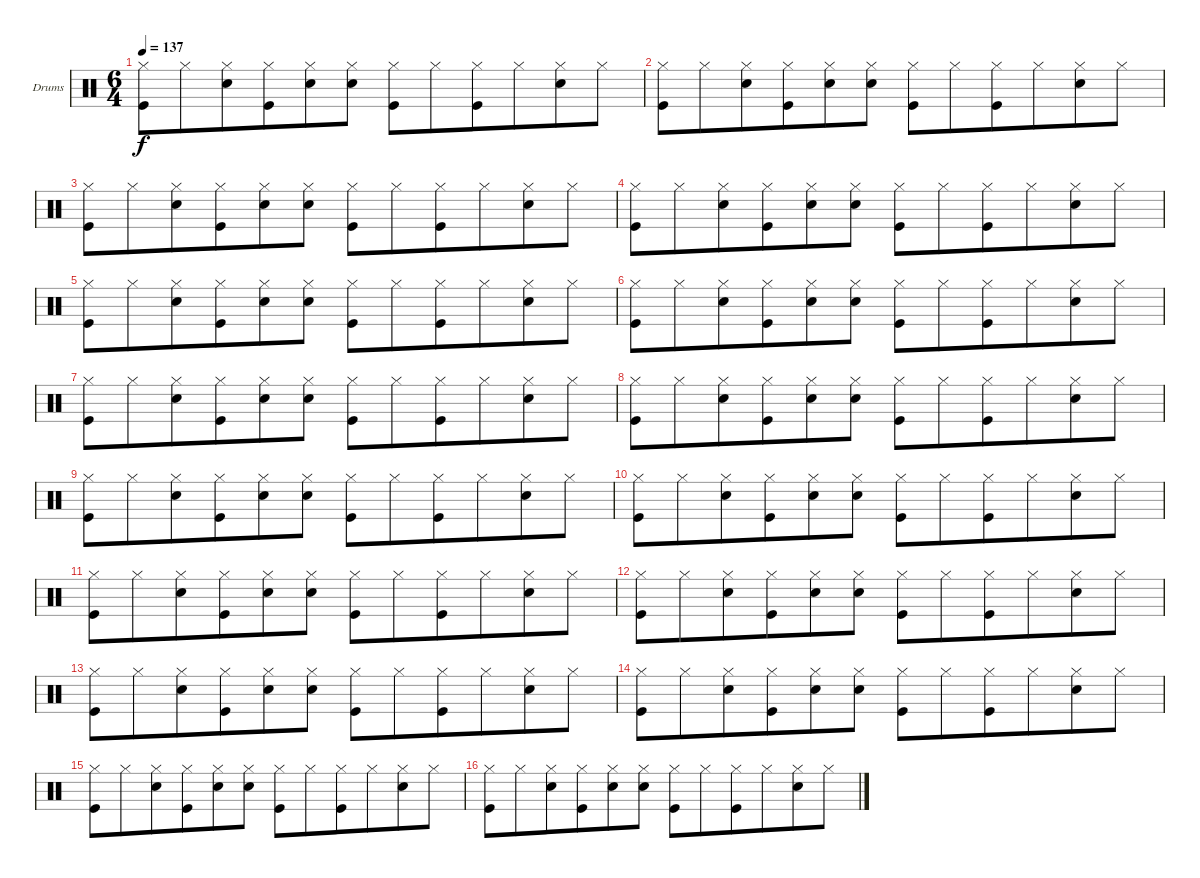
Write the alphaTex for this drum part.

\bracketExtendMode groupsimilarinstruments
\firstSystemTrackNameOrientation horizontal
\otherSystemsTrackNameOrientation horizontal
\track ("Peter Ulrich (Drums)" "Drums") {instrument percussion}
\staff {score}
\articulation defaults
\ts (6 4)
\beaming (8 6 6)
\tempo 137
\clef neutral
\ks c
("Hi-Hat (closed)" "Kick (hit)").8{dy f} "Hi-Hat (closed)".8 ("Hi-Hat (closed)" "Snare (hit) 2").8 ("Hi-Hat (closed)" "Kick (hit)").8 ("Hi-Hat (closed)" "Snare (hit) 2").8 ("Hi-Hat (closed)" "Snare (hit) 2").8 ("Hi-Hat (closed)" "Kick (hit)").8 "Hi-Hat (closed)".8 ("Hi-Hat (closed)" "Kick (hit)").8 "Hi-Hat (closed)".8 ("Hi-Hat (closed)" "Snare (hit) 2").8 "Hi-Hat (closed)".8 |
("Hi-Hat (closed)" "Kick (hit)").8 "Hi-Hat (closed)".8 ("Hi-Hat (closed)" "Snare (hit) 2").8 ("Hi-Hat (closed)" "Kick (hit)").8 ("Hi-Hat (closed)" "Snare (hit) 2").8 ("Hi-Hat (closed)" "Snare (hit) 2").8 ("Hi-Hat (closed)" "Kick (hit)").8 "Hi-Hat (closed)".8 ("Hi-Hat (closed)" "Kick (hit)").8 "Hi-Hat (closed)".8 ("Hi-Hat (closed)" "Snare (hit) 2").8 "Hi-Hat (closed)".8 |
("Hi-Hat (closed)" "Kick (hit)").8 "Hi-Hat (closed)".8 ("Hi-Hat (closed)" "Snare (hit) 2").8 ("Hi-Hat (closed)" "Kick (hit)").8 ("Hi-Hat (closed)" "Snare (hit) 2").8 ("Hi-Hat (closed)" "Snare (hit) 2").8 ("Hi-Hat (closed)" "Kick (hit)").8 "Hi-Hat (closed)".8 ("Hi-Hat (closed)" "Kick (hit)").8 "Hi-Hat (closed)".8 ("Hi-Hat (closed)" "Snare (hit) 2").8 "Hi-Hat (closed)".8 |
("Hi-Hat (closed)" "Kick (hit)").8 "Hi-Hat (closed)".8 ("Hi-Hat (closed)" "Snare (hit) 2").8 ("Hi-Hat (closed)" "Kick (hit)").8 ("Hi-Hat (closed)" "Snare (hit) 2").8 ("Hi-Hat (closed)" "Snare (hit) 2").8 ("Hi-Hat (closed)" "Kick (hit)").8 "Hi-Hat (closed)".8 ("Hi-Hat (closed)" "Kick (hit)").8 "Hi-Hat (closed)".8 ("Hi-Hat (closed)" "Snare (hit) 2").8 "Hi-Hat (closed)".8 |
("Hi-Hat (closed)" "Kick (hit)").8 "Hi-Hat (closed)".8 ("Hi-Hat (closed)" "Snare (hit) 2").8 ("Hi-Hat (closed)" "Kick (hit)").8 ("Hi-Hat (closed)" "Snare (hit) 2").8 ("Hi-Hat (closed)" "Snare (hit) 2").8 ("Hi-Hat (closed)" "Kick (hit)").8 "Hi-Hat (closed)".8 ("Hi-Hat (closed)" "Kick (hit)").8 "Hi-Hat (closed)".8 ("Hi-Hat (closed)" "Snare (hit) 2").8 "Hi-Hat (closed)".8 |
("Hi-Hat (closed)" "Kick (hit)").8 "Hi-Hat (closed)".8 ("Hi-Hat (closed)" "Snare (hit) 2").8 ("Hi-Hat (closed)" "Kick (hit)").8 ("Hi-Hat (closed)" "Snare (hit) 2").8 ("Hi-Hat (closed)" "Snare (hit) 2").8 ("Hi-Hat (closed)" "Kick (hit)").8 "Hi-Hat (closed)".8 ("Hi-Hat (closed)" "Kick (hit)").8 "Hi-Hat (closed)".8 ("Hi-Hat (closed)" "Snare (hit) 2").8 "Hi-Hat (closed)".8 |
("Hi-Hat (closed)" "Kick (hit)").8 "Hi-Hat (closed)".8 ("Hi-Hat (closed)" "Snare (hit) 2").8 ("Hi-Hat (closed)" "Kick (hit)").8 ("Hi-Hat (closed)" "Snare (hit) 2").8 ("Hi-Hat (closed)" "Snare (hit) 2").8 ("Hi-Hat (closed)" "Kick (hit)").8 "Hi-Hat (closed)".8 ("Hi-Hat (closed)" "Kick (hit)").8 "Hi-Hat (closed)".8 ("Hi-Hat (closed)" "Snare (hit) 2").8 "Hi-Hat (closed)".8 |
("Hi-Hat (closed)" "Kick (hit)").8 "Hi-Hat (closed)".8 ("Hi-Hat (closed)" "Snare (hit) 2").8 ("Hi-Hat (closed)" "Kick (hit)").8 ("Hi-Hat (closed)" "Snare (hit) 2").8 ("Hi-Hat (closed)" "Snare (hit) 2").8 ("Hi-Hat (closed)" "Kick (hit)").8 "Hi-Hat (closed)".8 ("Hi-Hat (closed)" "Kick (hit)").8 "Hi-Hat (closed)".8 ("Hi-Hat (closed)" "Snare (hit) 2").8 "Hi-Hat (closed)".8 |
("Hi-Hat (closed)" "Kick (hit)").8 "Hi-Hat (closed)".8 ("Hi-Hat (closed)" "Snare (hit) 2").8 ("Hi-Hat (closed)" "Kick (hit)").8 ("Hi-Hat (closed)" "Snare (hit) 2").8 ("Hi-Hat (closed)" "Snare (hit) 2").8 ("Hi-Hat (closed)" "Kick (hit)").8 "Hi-Hat (closed)".8 ("Hi-Hat (closed)" "Kick (hit)").8 "Hi-Hat (closed)".8 ("Hi-Hat (closed)" "Snare (hit) 2").8 "Hi-Hat (closed)".8 |
("Hi-Hat (closed)" "Kick (hit)").8 "Hi-Hat (closed)".8 ("Hi-Hat (closed)" "Snare (hit) 2").8 ("Hi-Hat (closed)" "Kick (hit)").8 ("Hi-Hat (closed)" "Snare (hit) 2").8 ("Hi-Hat (closed)" "Snare (hit) 2").8 ("Hi-Hat (closed)" "Kick (hit)").8 "Hi-Hat (closed)".8 ("Hi-Hat (closed)" "Kick (hit)").8 "Hi-Hat (closed)".8 ("Hi-Hat (closed)" "Snare (hit) 2").8 "Hi-Hat (closed)".8 |
("Hi-Hat (closed)" "Kick (hit)").8 "Hi-Hat (closed)".8 ("Hi-Hat (closed)" "Snare (hit) 2").8 ("Hi-Hat (closed)" "Kick (hit)").8 ("Hi-Hat (closed)" "Snare (hit) 2").8 ("Hi-Hat (closed)" "Snare (hit) 2").8 ("Hi-Hat (closed)" "Kick (hit)").8 "Hi-Hat (closed)".8 ("Hi-Hat (closed)" "Kick (hit)").8 "Hi-Hat (closed)".8 ("Hi-Hat (closed)" "Snare (hit) 2").8 "Hi-Hat (closed)".8 |
("Hi-Hat (closed)" "Kick (hit)").8 "Hi-Hat (closed)".8 ("Hi-Hat (closed)" "Snare (hit) 2").8 ("Hi-Hat (closed)" "Kick (hit)").8 ("Hi-Hat (closed)" "Snare (hit) 2").8 ("Hi-Hat (closed)" "Snare (hit) 2").8 ("Hi-Hat (closed)" "Kick (hit)").8 "Hi-Hat (closed)".8 ("Hi-Hat (closed)" "Kick (hit)").8 "Hi-Hat (closed)".8 ("Hi-Hat (closed)" "Snare (hit) 2").8 "Hi-Hat (closed)".8 |
("Hi-Hat (closed)" "Kick (hit)").8 "Hi-Hat (closed)".8 ("Hi-Hat (closed)" "Snare (hit) 2").8 ("Hi-Hat (closed)" "Kick (hit)").8 ("Hi-Hat (closed)" "Snare (hit) 2").8 ("Hi-Hat (closed)" "Snare (hit) 2").8 ("Hi-Hat (closed)" "Kick (hit)").8 "Hi-Hat (closed)".8 ("Hi-Hat (closed)" "Kick (hit)").8 "Hi-Hat (closed)".8 ("Hi-Hat (closed)" "Snare (hit) 2").8 "Hi-Hat (closed)".8 |
("Hi-Hat (closed)" "Kick (hit)").8 "Hi-Hat (closed)".8 ("Hi-Hat (closed)" "Snare (hit) 2").8 ("Hi-Hat (closed)" "Kick (hit)").8 ("Hi-Hat (closed)" "Snare (hit) 2").8 ("Hi-Hat (closed)" "Snare (hit) 2").8 ("Hi-Hat (closed)" "Kick (hit)").8 "Hi-Hat (closed)".8 ("Hi-Hat (closed)" "Kick (hit)").8 "Hi-Hat (closed)".8 ("Hi-Hat (closed)" "Snare (hit) 2").8 "Hi-Hat (closed)".8 |
("Hi-Hat (closed)" "Kick (hit)").8 "Hi-Hat (closed)".8 ("Hi-Hat (closed)" "Snare (hit) 2").8 ("Hi-Hat (closed)" "Kick (hit)").8 ("Hi-Hat (closed)" "Snare (hit) 2").8 ("Hi-Hat (closed)" "Snare (hit) 2").8 ("Hi-Hat (closed)" "Kick (hit)").8 "Hi-Hat (closed)".8 ("Hi-Hat (closed)" "Kick (hit)").8 "Hi-Hat (closed)".8 ("Hi-Hat (closed)" "Snare (hit) 2").8 "Hi-Hat (closed)".8 |
("Hi-Hat (closed)" "Kick (hit)").8 "Hi-Hat (closed)".8 ("Hi-Hat (closed)" "Snare (hit) 2").8 ("Hi-Hat (closed)" "Kick (hit)").8 ("Hi-Hat (closed)" "Snare (hit) 2").8 ("Hi-Hat (closed)" "Snare (hit) 2").8 ("Hi-Hat (closed)" "Kick (hit)").8 "Hi-Hat (closed)".8 ("Hi-Hat (closed)" "Kick (hit)").8 "Hi-Hat (closed)".8 ("Hi-Hat (closed)" "Snare (hit) 2").8 "Hi-Hat (closed)".8
